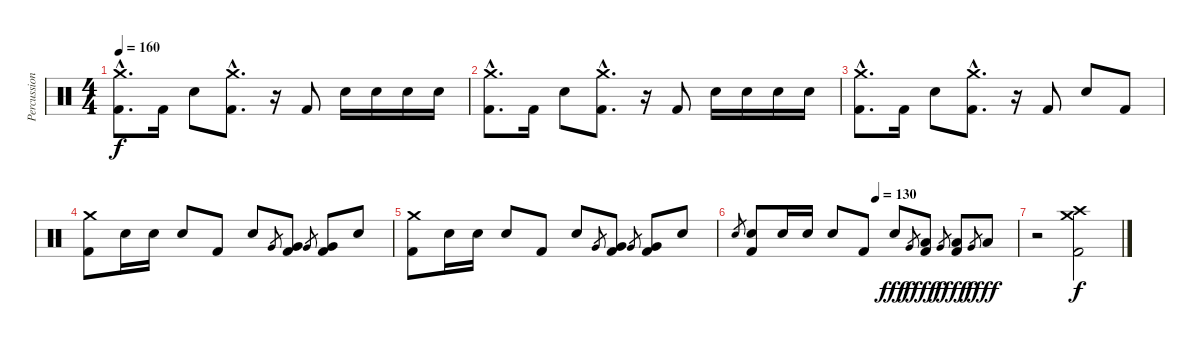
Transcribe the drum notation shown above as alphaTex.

\track ("Percussion" "Percussion") {instrument percussion}
\staff {score}
\articulation defaults
\ts (4 4)
\tempo 160
\clef neutral
\ks c
("Kick (hit) 2"{hac} "Crash medium (hit)"{hac}).8{d dy f} "Kick (hit) 2".16 "Electric Snare (hit)".8 ("Kick (hit) 2"{hac} "Crash medium (hit)"{hac}).8{d} r.16 "Kick (hit) 2".8 "Electric Snare (hit)".16 "Electric Snare (hit)".16 "Electric Snare (hit)".16 "Electric Snare (hit)".16 |
("Kick (hit) 2"{hac} "Crash medium (hit)"{hac}).8{d} "Kick (hit) 2".16 "Electric Snare (hit)".8 ("Kick (hit) 2"{hac} "Crash medium (hit)"{hac}).8{d} r.16 "Kick (hit) 2".8 "Electric Snare (hit)".16 "Electric Snare (hit)".16 "Electric Snare (hit)".16 "Electric Snare (hit)".16 |
("Kick (hit) 2"{hac} "Crash medium (hit)"{hac}).8{d} "Kick (hit) 2".16 "Electric Snare (hit)".8 ("Kick (hit) 2"{hac} "Crash medium (hit)"{hac}).8{d} r.16 "Kick (hit) 2".8 "Electric Snare (hit)".8 "Kick (hit) 2".8 |
("Kick (hit) 2" "Crash medium (hit)").8 "Electric Snare (hit)".16 "Electric Snare (hit)".16 "Electric Snare (hit)".8 "Kick (hit) 2".8 "Electric Snare (hit)".8 "Very Low Tom (hit)".8{gr} ("Kick (hit) 2" "Very Low Tom (hit)").8 "Very Low Tom (hit)".8{gr} ("Kick (hit) 2" "Very Low Tom (hit)").8 "Electric Snare (hit)".8 |
("Kick (hit) 2" "Crash medium (hit)").8 "Electric Snare (hit)".16 "Electric Snare (hit)".16 "Electric Snare (hit)".8 "Kick (hit) 2".8 "Electric Snare (hit)".8 "Very Low Tom (hit)".8{gr} ("Kick (hit) 2" "Very Low Tom (hit)").8 "Very Low Tom (hit)".8{gr} ("Kick (hit) 2" "Very Low Tom (hit)").8 "Electric Snare (hit)".8 |
\tempo (130 0.5)
"Electric Snare (hit)".8{gr} ("Kick (hit) 2" "Electric Snare (hit)").8 "Electric Snare (hit)".16 "Electric Snare (hit)".16 "Electric Snare (hit)".8 "Kick (hit) 2".8 "Electric Snare (hit)".8{dy fff} "Very Low Tom (hit)".8{gr dy f} ("Kick (hit) 2" "Low Tom (hit)").8{dy fff} "Very Low Tom (hit)".8{gr dy f} ("Kick (hit) 2" "Low Tom (hit)").8{dy fff} "Very Low Tom (hit)".8{gr dy f} "Low Tom (hit)".8{dy fff} |
r.2 ("Kick (hit) 2" "Crash medium (hit)" "Crash high (hit)").2{dy f}
